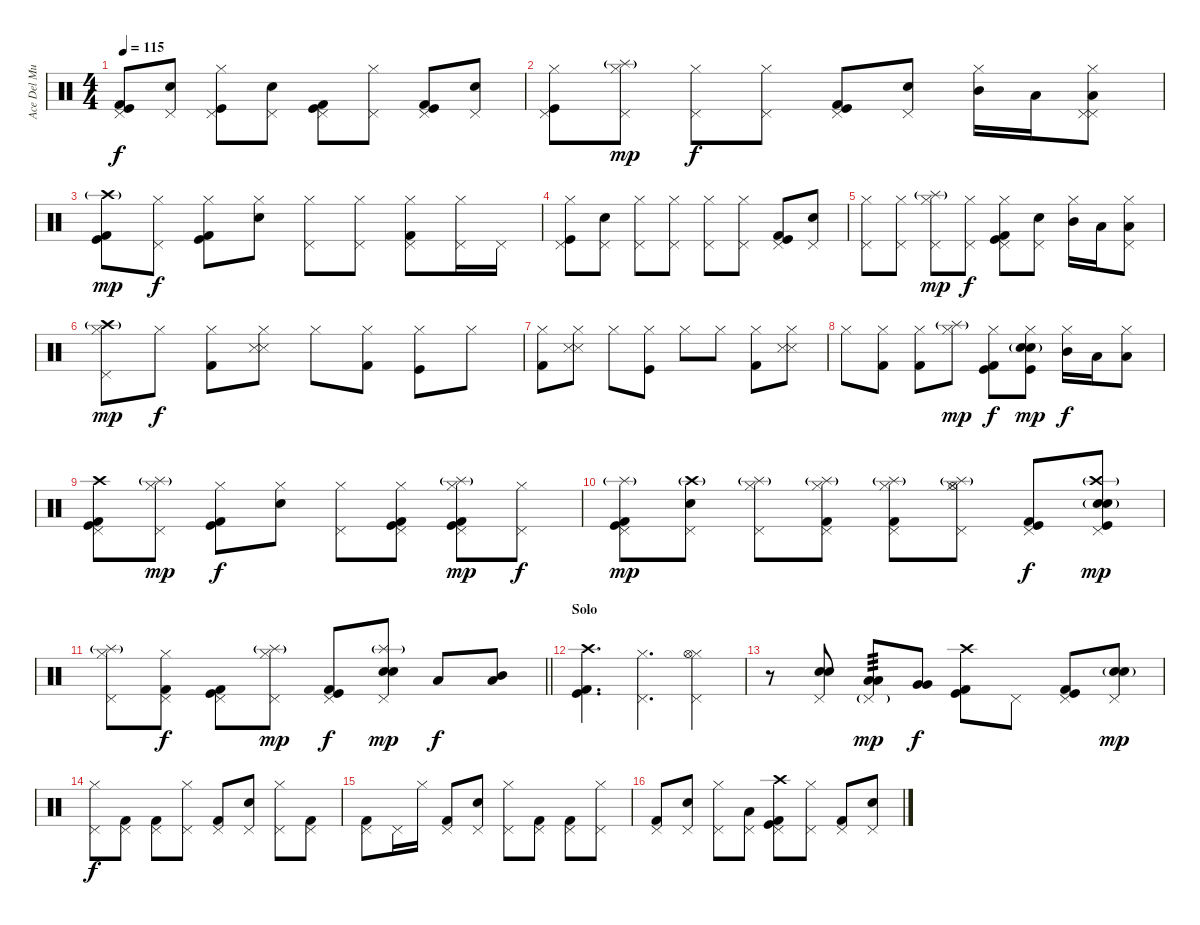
\track ("Ace Del Mundo(Drums)" "Ace Del Mu") {instrument percussion}
\staff {score}
\articulation defaults
\ts (4 4)
\tempo 115
\clef neutral
\ks c
("Pedal Hi-Hat (hit)" "Kick (hit) 2" "Kick (hit)").8{dy f} ("Pedal Hi-Hat (hit)" "Electric Snare (hit)").8 ("Pedal Hi-Hat (hit)" "Hi-Hat (closed)" "Kick (hit)").8 ("Pedal Hi-Hat (hit)" "Electric Snare (hit)").8 ("Pedal Hi-Hat (hit)" "Kick (hit) 2" "Kick (hit)").8 ("Pedal Hi-Hat (hit)" "Hi-Hat (closed)").8 ("Pedal Hi-Hat (hit)" "Kick (hit) 2" "Kick (hit)").8 ("Pedal Hi-Hat (hit)" "Electric Snare (hit)").8 |
("Pedal Hi-Hat (hit)" "Hi-Hat (closed)" "Kick (hit)").8 ("Pedal Hi-Hat (hit)" "Hi-Hat (closed)" "Splash (hit)"{g}).8{dy mp} ("Pedal Hi-Hat (hit)" "Hi-Hat (closed)").8{dy f} ("Pedal Hi-Hat (hit)" "Hi-Hat (closed)").8 ("Pedal Hi-Hat (hit)" "Kick (hit) 2" "Kick (hit)").8 ("Pedal Hi-Hat (hit)" "Electric Snare (hit)").8 ("Hi-Hat (closed)" "Mid Tom (hit)").16 "Low Tom (hit)".16 ("Pedal Hi-Hat (hit)" "Hi-Hat (closed)" "Pedal Hi-Hat (hit)" "Low Tom (hit)").8 |
("Crash high (hit)"{g} "Kick (hit) 2" "Kick (hit)").8{dy mp} ("Hi-Hat (closed)" "Pedal Hi-Hat (hit)").8{dy f} ("Hi-Hat (closed)" "Kick (hit) 2" "Kick (hit)").8 ("Hi-Hat (closed)" "Electric Snare (hit)").8 ("Hi-Hat (closed)" "Pedal Hi-Hat (hit)").8 ("Hi-Hat (closed)" "Pedal Hi-Hat (hit)").8 ("Hi-Hat (closed)" "Pedal Hi-Hat (hit)" "Kick (hit) 2").8 ("Hi-Hat (closed)" "Pedal Hi-Hat (hit)").16 "Pedal Hi-Hat (hit)".16 |
("Pedal Hi-Hat (hit)" "Hi-Hat (closed)" "Kick (hit)").8 ("Pedal Hi-Hat (hit)" "Electric Snare (hit)").8 ("Pedal Hi-Hat (hit)" "Hi-Hat (closed)").8 ("Pedal Hi-Hat (hit)" "Hi-Hat (closed)").8 ("Pedal Hi-Hat (hit)" "Hi-Hat (closed)").8 ("Pedal Hi-Hat (hit)" "Hi-Hat (closed)").8 ("Pedal Hi-Hat (hit)" "Kick (hit) 2" "Kick (hit)").8 ("Pedal Hi-Hat (hit)" "Electric Snare (hit)").8 |
("Pedal Hi-Hat (hit)" "Hi-Hat (closed)").8 ("Pedal Hi-Hat (hit)" "Hi-Hat (closed)").8 ("Pedal Hi-Hat (hit)" "Hi-Hat (closed)" "Splash (hit)"{g}).8{dy mp} ("Pedal Hi-Hat (hit)" "Hi-Hat (closed)").8{dy f} ("Pedal Hi-Hat (hit)" "Hi-Hat (closed)" "Kick (hit) 2" "Kick (hit)").8 ("Pedal Hi-Hat (hit)" "Electric Snare (hit)").8 ("Hi-Hat (closed)" "Mid Tom (hit)").16 "Low Tom (hit)".16 ("Pedal Hi-Hat (hit)" "Hi-Hat (closed)" "Low Tom (hit)").8 |
("Crash high (hit)"{g} "Hi-Hat (closed)" "Pedal Hi-Hat (hit)").8{dy mp} "Hi-Hat (closed)".8{dy f} ("Hi-Hat (closed)" "Kick (hit) 2").8 ("Hi-Hat (closed)" "Snare (side stick) 3" "Snare (side stick) 3").8 "Hi-Hat (closed)".8 ("Hi-Hat (closed)" "Kick (hit) 2").8 ("Hi-Hat (closed)" "Kick (hit)").8 "Hi-Hat (closed)".8 |
("Hi-Hat (closed)" "Kick (hit) 2").8 ("Hi-Hat (closed)" "Snare (side stick) 3" "Snare (side stick) 3").8 "Hi-Hat (closed)".8 ("Hi-Hat (closed)" "Kick (hit)").8 "Hi-Hat (closed)".8 "Hi-Hat (closed)".8 ("Hi-Hat (closed)" "Kick (hit) 2").8 ("Hi-Hat (closed)" "Snare (side stick) 3" "Snare (side stick) 3").8 |
"Hi-Hat (closed)".8 ("Hi-Hat (closed)" "Kick (hit) 2").8 ("Hi-Hat (closed)" "Kick (hit) 2").8 ("Hi-Hat (closed)" "Splash (hit)"{g}).8{dy mp} ("Hi-Hat (closed)" "Kick (hit) 2" "Kick (hit)").8{dy f} ("Hi-Hat (closed)" "Electric Snare (hit)" "Kick (hit)" "Snare (hit) 2"{g}).8{bd 60 dy mp} ("Hi-Hat (closed)" "Mid Tom (hit)").16{dy f} "Low Tom (hit)".16 ("Hi-Hat (closed)" "Low Tom (hit)").8 |
("Pedal Hi-Hat (hit)" "Crash high (hit)" "Kick (hit) 2" "Kick (hit)").8 ("Pedal Hi-Hat (hit)" "Hi-Hat (closed)" "Splash (hit)"{g}).8{dy mp} ("Hi-Hat (closed)" "Kick (hit) 2" "Kick (hit)").8{dy f} ("Hi-Hat (closed)" "Electric Snare (hit)").8 ("Pedal Hi-Hat (hit)" "Hi-Hat (closed)").8 ("Pedal Hi-Hat (hit)" "Hi-Hat (closed)" "Kick (hit) 2" "Kick (hit)").8 ("Pedal Hi-Hat (hit)" "Hi-Hat (closed)" "Kick (hit) 2" "Kick (hit)" "Splash (hit)"{g}).8{dy mp} ("Pedal Hi-Hat (hit)" "Hi-Hat (closed)").8{dy f} |
("Pedal Hi-Hat (hit)" "Kick (hit) 2" "Kick (hit)" "Splash (hit)"{g}).8{dy mp} ("Pedal Hi-Hat (hit)" "Electric Snare (hit)" "Crash high (hit)"{g}).8 ("Pedal Hi-Hat (hit)" "Hi-Hat (closed)" "Splash (hit)"{g}).8 ("Pedal Hi-Hat (hit)" "Hi-Hat (closed)" "Splash (hit)"{g} "Kick (hit) 2").8 ("Pedal Hi-Hat (hit)" "Hi-Hat (closed)" "Splash (hit)"{g} "Kick (hit) 2").8 ("Pedal Hi-Hat (hit)" "Hi-Hat (closed)" "Splash (hit)"{g} "Hi-Hat (open)").8 ("Pedal Hi-Hat (hit)" "Kick (hit) 2" "Kick (hit)").8{dy f} ("Pedal Hi-Hat (hit)" "Electric Snare (hit)" "Kick (hit)" "Snare (hit) 2"{g} "Crash high (hit)"{g}).8{bd 30 dy mp} |
\barLineRight lightlight
("Pedal Hi-Hat (hit)" "Hi-Hat (closed)" "Splash (hit)"{g}).8 ("Pedal Hi-Hat (hit)" "Hi-Hat (closed)" "Kick (hit) 2").8{dy f} ("Pedal Hi-Hat (hit)" "Kick (hit) 2" "Kick (hit)").8 ("Pedal Hi-Hat (hit)" "Hi-Hat (closed)" "Splash (hit)"{g}).8{dy mp} ("Pedal Hi-Hat (hit)" "Kick (hit) 2" "Kick (hit)").8{dy f} ("Pedal Hi-Hat (hit)" "Electric Snare (hit)" "Snare (hit) 2" "Splash (hit)"{g}).8{bd 60 dy mp} "Low Tom (hit)".8{dy f} ("Mid Tom (hit)" "Low Tom (hit)").8 |
\section ("" "Solo")
("Crash high (hit)" "Kick (hit) 2" "Kick (hit)").4{d} ("Pedal Hi-Hat (hit)" "Hi-Hat (closed)").4{d} ("Pedal Hi-Hat (hit)" "Hi-Hat (closed)" "Hi-Hat (open)").4 |
r.8 ("Pedal Hi-Hat (hit)" "Electric Snare (hit)" "Snare (hit) 2").8{bu 60} ("Low Tom (hit)" "Low Tom (hit)" "Pedal Hi-Hat (hit)"{g}).8{tp 3 dy mp} ("Very Low Tom (hit)" "Very Low Tom (hit)").8{dy f} ("Crash high (hit)" "Kick (hit) 2" "Kick (hit)").8 "Pedal Hi-Hat (hit)".8 ("Pedal Hi-Hat (hit)" "Kick (hit) 2" "Kick (hit)").8 ("Pedal Hi-Hat (hit)" "Electric Snare (hit)" "Snare (hit) 2"{g}).8{dy mp} |
("Pedal Hi-Hat (hit)" "Hi-Hat (closed)").8{dy f} ("Pedal Hi-Hat (hit)" "Kick (hit) 2").8 ("Pedal Hi-Hat (hit)" "Kick (hit) 2").8 ("Pedal Hi-Hat (hit)" "Hi-Hat (closed)").8 ("Pedal Hi-Hat (hit)" "Kick (hit) 2").8 ("Pedal Hi-Hat (hit)" "Electric Snare (hit)").8 ("Pedal Hi-Hat (hit)" "Hi-Hat (closed)").8 ("Pedal Hi-Hat (hit)" "Kick (hit) 2").8 |
("Pedal Hi-Hat (hit)" "Kick (hit) 2").8 "Pedal Hi-Hat (hit)".16 "Hi-Hat (closed)".16 ("Pedal Hi-Hat (hit)" "Kick (hit) 2").8 ("Pedal Hi-Hat (hit)" "Electric Snare (hit)").8 ("Pedal Hi-Hat (hit)" "Hi-Hat (closed)").8 ("Pedal Hi-Hat (hit)" "Kick (hit) 2").8 ("Pedal Hi-Hat (hit)" "Kick (hit) 2").8 ("Pedal Hi-Hat (hit)" "Hi-Hat (closed)").8 |
("Pedal Hi-Hat (hit)" "Kick (hit) 2").8 ("Pedal Hi-Hat (hit)" "Electric Snare (hit)").8 ("Pedal Hi-Hat (hit)" "Hi-Hat (closed)").8 ("Pedal Hi-Hat (hit)" "Low Tom (hit)").8 ("Pedal Hi-Hat (hit)" "Crash high (hit)" "Kick (hit) 2" "Kick (hit)").8 ("Pedal Hi-Hat (hit)" "Hi-Hat (closed)").8 ("Pedal Hi-Hat (hit)" "Kick (hit) 2").8 ("Pedal Hi-Hat (hit)" "Electric Snare (hit)").8
